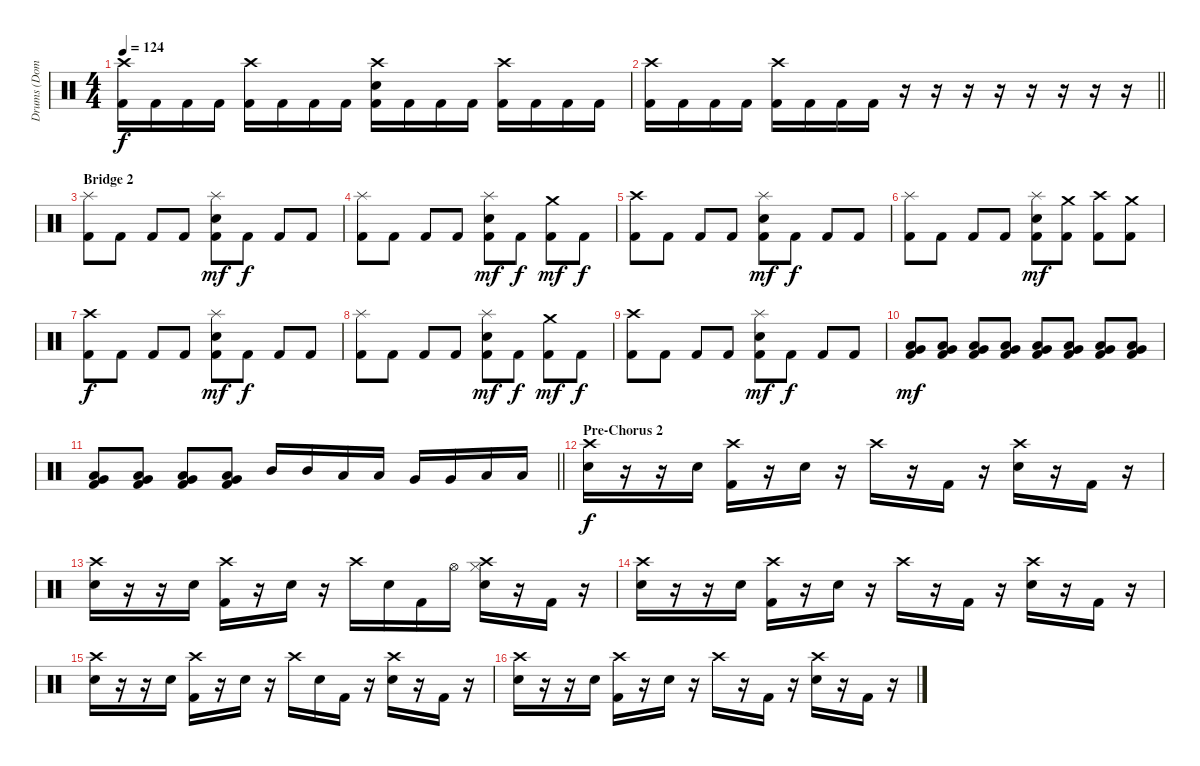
\track ("Drums (Dominik)" "Drums (Dom") {instrument percussion}
\staff {score}
\articulation defaults
\ts (4 4)
\tempo 124
\clef neutral
\ks c
("Crash high (hit)" "Kick (hit) 2").16{dy f} "Kick (hit) 2".16 "Kick (hit) 2".16 "Kick (hit) 2".16 ("Crash high (hit)" "Kick (hit) 2").16 "Kick (hit) 2".16 "Kick (hit) 2".16 "Kick (hit) 2".16 ("Crash high (hit)" "Electric Snare (hit)" "Kick (hit) 2").16 "Kick (hit) 2".16 "Kick (hit) 2".16 "Kick (hit) 2".16 ("Crash high (hit)" "Kick (hit) 2").16 "Kick (hit) 2".16 "Kick (hit) 2".16 "Kick (hit) 2".16 |
\barLineRight lightlight
("Crash high (hit)" "Kick (hit) 2").16 "Kick (hit) 2".16 "Kick (hit) 2".16 "Kick (hit) 2".16 ("Crash high (hit)" "Kick (hit) 2").16 "Kick (hit) 2".16 "Kick (hit) 2".16 "Kick (hit) 2".16 r.16 r.16 r.16 r.16 r.16 r.16 r.16 r.16 |
\section ("" "Bridge 2")
("Splash (hit)" "Kick (hit) 2").8 "Kick (hit) 2".8 "Kick (hit) 2".8 "Kick (hit) 2".8 ("Splash (hit)" "Electric Snare (hit)" "Kick (hit) 2").8{dy mf} "Kick (hit) 2".8{dy f} "Kick (hit) 2".8 "Kick (hit) 2".8 |
("Splash (hit)" "Kick (hit) 2").8 "Kick (hit) 2".8 "Kick (hit) 2".8 "Kick (hit) 2".8 ("Splash (hit)" "Electric Snare (hit)" "Kick (hit) 2").8{dy mf} "Kick (hit) 2".8{dy f} ("Crash medium (hit)" "Kick (hit) 2").8{dy mf} "Kick (hit) 2".8{dy f} |
("Crash high (hit)" "Kick (hit) 2").8 "Kick (hit) 2".8 "Kick (hit) 2".8 "Kick (hit) 2".8 ("Splash (hit)" "Electric Snare (hit)" "Kick (hit) 2").8{dy mf} "Kick (hit) 2".8{dy f} "Kick (hit) 2".8 "Kick (hit) 2".8 |
("Splash (hit)" "Kick (hit) 2").8 "Kick (hit) 2".8 "Kick (hit) 2".8 "Kick (hit) 2".8 ("Splash (hit)" "Electric Snare (hit)" "Kick (hit) 2").8{dy mf} ("Crash medium (hit)" "Kick (hit) 2").8 ("Crash high (hit)" "Kick (hit) 2").8 ("Crash medium (hit)" "Kick (hit) 2").8 |
("Crash high (hit)" "Kick (hit) 2").8{dy f} "Kick (hit) 2".8 "Kick (hit) 2".8 "Kick (hit) 2".8 ("Splash (hit)" "Electric Snare (hit)" "Kick (hit) 2").8{dy mf} "Kick (hit) 2".8{dy f} "Kick (hit) 2".8 "Kick (hit) 2".8 |
("Splash (hit)" "Kick (hit) 2").8 "Kick (hit) 2".8 "Kick (hit) 2".8 "Kick (hit) 2".8 ("Splash (hit)" "Electric Snare (hit)" "Kick (hit) 2").8{dy mf} "Kick (hit) 2".8{dy f} ("Crash medium (hit)" "Kick (hit) 2").8{dy mf} "Kick (hit) 2".8{dy f} |
("Crash high (hit)" "Kick (hit) 2").8 "Kick (hit) 2".8 "Kick (hit) 2".8 "Kick (hit) 2".8 ("Splash (hit)" "Electric Snare (hit)" "Kick (hit) 2").8{dy mf} "Kick (hit) 2".8{dy f} "Kick (hit) 2".8 "Kick (hit) 2".8 |
("Very Low Tom (hit)" "Low Floor Tom (hit)" "Kick (hit) 2").8{dy mf} ("Very Low Tom (hit)" "Low Floor Tom (hit)" "Kick (hit) 2").8 ("Very Low Tom (hit)" "Low Floor Tom (hit)" "Kick (hit) 2").8 ("Very Low Tom (hit)" "Low Floor Tom (hit)" "Kick (hit) 2").8 ("Very Low Tom (hit)" "Low Floor Tom (hit)" "Kick (hit) 2").8 ("Very Low Tom (hit)" "Low Floor Tom (hit)" "Kick (hit) 2").8 ("Very Low Tom (hit)" "Low Floor Tom (hit)" "Kick (hit) 2").8 ("Very Low Tom (hit)" "Low Floor Tom (hit)" "Kick (hit) 2").8 |
\barLineRight lightlight
("Very Low Tom (hit)" "Low Floor Tom (hit)" "Kick (hit) 2").8 ("Very Low Tom (hit)" "Low Floor Tom (hit)" "Kick (hit) 2").8 ("Very Low Tom (hit)" "Low Floor Tom (hit)" "Kick (hit) 2").8 ("Very Low Tom (hit)" "Low Floor Tom (hit)" "Kick (hit) 2").8 "Mid Tom (hit)".16 "Mid Tom (hit)".16 "Low Tom (hit)".16 "Low Tom (hit)".16 "Very Low Tom (hit)".16 "Very Low Tom (hit)".16 "Low Floor Tom (hit)".16 "Low Floor Tom (hit)".16 |
\section ("" "Pre-Chorus 2")
("Crash high (hit)" "Electric Snare (hit)").16{dy f} r.16 r.16 "Electric Snare (hit)".16 ("Crash high (hit)" "Kick (hit) 2").16 r.16 "Electric Snare (hit)".16 r.16 "Crash high (hit)".16 r.16 "Kick (hit) 2".16 r.16 ("Crash high (hit)" "Electric Snare (hit)").16 r.16 "Kick (hit) 2".16 r.16 |
("Crash high (hit)" "Electric Snare (hit)").16 r.16 r.16 "Electric Snare (hit)".16 ("Crash high (hit)" "Kick (hit) 2").16 r.16 "Electric Snare (hit)".16 r.16 "Crash high (hit)".16 "Electric Snare (hit)".16 "Kick (hit) 2".16 "Hi-Hat (open)".16 ("Crash high (hit)" "Hi-Hat (closed)" "Electric Snare (hit)").16 r.16 "Kick (hit) 2".16 r.16 |
("Crash high (hit)" "Electric Snare (hit)").16 r.16 r.16 "Electric Snare (hit)".16 ("Crash high (hit)" "Kick (hit) 2").16 r.16 "Electric Snare (hit)".16 r.16 "Crash high (hit)".16 r.16 "Kick (hit) 2".16 r.16 ("Crash high (hit)" "Electric Snare (hit)").16 r.16 "Kick (hit) 2".16 r.16 |
("Crash high (hit)" "Electric Snare (hit)").16 r.16 r.16 "Electric Snare (hit)".16 ("Crash high (hit)" "Kick (hit) 2").16 r.16 "Electric Snare (hit)".16 r.16 "Crash high (hit)".16 "Electric Snare (hit)".16 "Kick (hit) 2".16 r.16 ("Crash high (hit)" "Electric Snare (hit)").16 r.16 "Kick (hit) 2".16 r.16 |
("Crash high (hit)" "Electric Snare (hit)").16 r.16 r.16 "Electric Snare (hit)".16 ("Crash high (hit)" "Kick (hit) 2").16 r.16 "Electric Snare (hit)".16 r.16 "Crash high (hit)".16 r.16 "Kick (hit) 2".16 r.16 ("Crash high (hit)" "Electric Snare (hit)").16 r.16 "Kick (hit) 2".16 r.16
